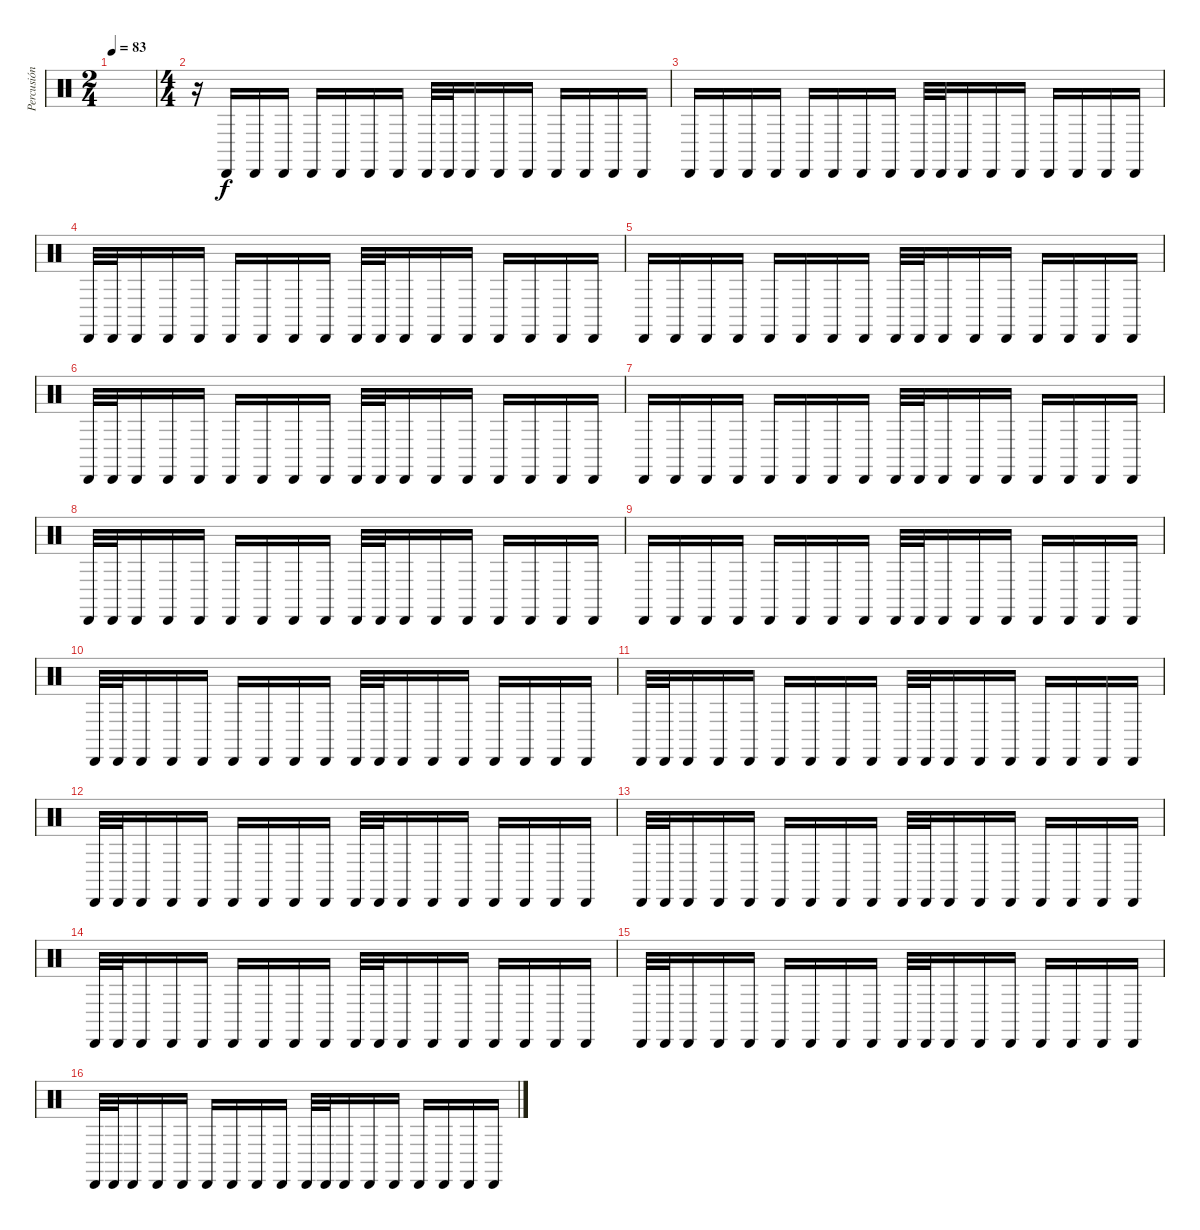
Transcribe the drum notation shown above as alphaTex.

\track ("Percusión" "Percusión") {instrument percussion}
\staff {score}
\articulation defaults
\ts (2 4)
\tempo 83
\clef neutral
\ks c
|
\ts (4 4)
r.16 "Cabasa (hit)".16 "Cabasa (hit)".16 "Cabasa (hit)".16 "Cabasa (hit)".16 "Cabasa (hit)".16 "Cabasa (hit)".16 "Cabasa (hit)".16 "Cabasa (hit)".32 "Cabasa (hit)".32 "Cabasa (hit)".16 "Cabasa (hit)".16 "Cabasa (hit)".16 "Cabasa (hit)".16 "Cabasa (hit)".16 "Cabasa (hit)".16 "Cabasa (hit)".16 |
"Cabasa (hit)".16 "Cabasa (hit)".16 "Cabasa (hit)".16 "Cabasa (hit)".16 "Cabasa (hit)".16 "Cabasa (hit)".16 "Cabasa (hit)".16 "Cabasa (hit)".16 "Cabasa (hit)".32 "Cabasa (hit)".32 "Cabasa (hit)".16 "Cabasa (hit)".16 "Cabasa (hit)".16 "Cabasa (hit)".16 "Cabasa (hit)".16 "Cabasa (hit)".16 "Cabasa (hit)".16 |
"Cabasa (hit)".32 "Cabasa (hit)".32 "Cabasa (hit)".16 "Cabasa (hit)".16 "Cabasa (hit)".16 "Cabasa (hit)".16 "Cabasa (hit)".16 "Cabasa (hit)".16 "Cabasa (hit)".16 "Cabasa (hit)".32 "Cabasa (hit)".32 "Cabasa (hit)".16 "Cabasa (hit)".16 "Cabasa (hit)".16 "Cabasa (hit)".16 "Cabasa (hit)".16 "Cabasa (hit)".16 "Cabasa (hit)".16 |
"Cabasa (hit)".16 "Cabasa (hit)".16 "Cabasa (hit)".16 "Cabasa (hit)".16 "Cabasa (hit)".16 "Cabasa (hit)".16 "Cabasa (hit)".16 "Cabasa (hit)".16 "Cabasa (hit)".32 "Cabasa (hit)".32 "Cabasa (hit)".16 "Cabasa (hit)".16 "Cabasa (hit)".16 "Cabasa (hit)".16 "Cabasa (hit)".16 "Cabasa (hit)".16 "Cabasa (hit)".16 |
"Cabasa (hit)".32 "Cabasa (hit)".32 "Cabasa (hit)".16 "Cabasa (hit)".16 "Cabasa (hit)".16 "Cabasa (hit)".16 "Cabasa (hit)".16 "Cabasa (hit)".16 "Cabasa (hit)".16 "Cabasa (hit)".32 "Cabasa (hit)".32 "Cabasa (hit)".16 "Cabasa (hit)".16 "Cabasa (hit)".16 "Cabasa (hit)".16 "Cabasa (hit)".16 "Cabasa (hit)".16 "Cabasa (hit)".16 |
"Cabasa (hit)".16 "Cabasa (hit)".16 "Cabasa (hit)".16 "Cabasa (hit)".16 "Cabasa (hit)".16 "Cabasa (hit)".16 "Cabasa (hit)".16 "Cabasa (hit)".16 "Cabasa (hit)".32 "Cabasa (hit)".32 "Cabasa (hit)".16 "Cabasa (hit)".16 "Cabasa (hit)".16 "Cabasa (hit)".16 "Cabasa (hit)".16 "Cabasa (hit)".16 "Cabasa (hit)".16 |
"Cabasa (hit)".32 "Cabasa (hit)".32 "Cabasa (hit)".16 "Cabasa (hit)".16 "Cabasa (hit)".16 "Cabasa (hit)".16 "Cabasa (hit)".16 "Cabasa (hit)".16 "Cabasa (hit)".16 "Cabasa (hit)".32 "Cabasa (hit)".32 "Cabasa (hit)".16 "Cabasa (hit)".16 "Cabasa (hit)".16 "Cabasa (hit)".16 "Cabasa (hit)".16 "Cabasa (hit)".16 "Cabasa (hit)".16 |
"Cabasa (hit)".16 "Cabasa (hit)".16 "Cabasa (hit)".16 "Cabasa (hit)".16 "Cabasa (hit)".16 "Cabasa (hit)".16 "Cabasa (hit)".16 "Cabasa (hit)".16 "Cabasa (hit)".32 "Cabasa (hit)".32 "Cabasa (hit)".16 "Cabasa (hit)".16 "Cabasa (hit)".16 "Cabasa (hit)".16 "Cabasa (hit)".16 "Cabasa (hit)".16 "Cabasa (hit)".16 |
"Cabasa (hit)".32 "Cabasa (hit)".32 "Cabasa (hit)".16 "Cabasa (hit)".16 "Cabasa (hit)".16 "Cabasa (hit)".16 "Cabasa (hit)".16 "Cabasa (hit)".16 "Cabasa (hit)".16 "Cabasa (hit)".32 "Cabasa (hit)".32 "Cabasa (hit)".16 "Cabasa (hit)".16 "Cabasa (hit)".16 "Cabasa (hit)".16 "Cabasa (hit)".16 "Cabasa (hit)".16 "Cabasa (hit)".16 |
"Cabasa (hit)".32 "Cabasa (hit)".32 "Cabasa (hit)".16 "Cabasa (hit)".16 "Cabasa (hit)".16 "Cabasa (hit)".16 "Cabasa (hit)".16 "Cabasa (hit)".16 "Cabasa (hit)".16 "Cabasa (hit)".32 "Cabasa (hit)".32 "Cabasa (hit)".16 "Cabasa (hit)".16 "Cabasa (hit)".16 "Cabasa (hit)".16 "Cabasa (hit)".16 "Cabasa (hit)".16 "Cabasa (hit)".16 |
"Cabasa (hit)".32 "Cabasa (hit)".32 "Cabasa (hit)".16 "Cabasa (hit)".16 "Cabasa (hit)".16 "Cabasa (hit)".16 "Cabasa (hit)".16 "Cabasa (hit)".16 "Cabasa (hit)".16 "Cabasa (hit)".32 "Cabasa (hit)".32 "Cabasa (hit)".16 "Cabasa (hit)".16 "Cabasa (hit)".16 "Cabasa (hit)".16 "Cabasa (hit)".16 "Cabasa (hit)".16 "Cabasa (hit)".16 |
"Cabasa (hit)".32 "Cabasa (hit)".32 "Cabasa (hit)".16 "Cabasa (hit)".16 "Cabasa (hit)".16 "Cabasa (hit)".16 "Cabasa (hit)".16 "Cabasa (hit)".16 "Cabasa (hit)".16 "Cabasa (hit)".32 "Cabasa (hit)".32 "Cabasa (hit)".16 "Cabasa (hit)".16 "Cabasa (hit)".16 "Cabasa (hit)".16 "Cabasa (hit)".16 "Cabasa (hit)".16 "Cabasa (hit)".16 |
"Cabasa (hit)".32 "Cabasa (hit)".32 "Cabasa (hit)".16 "Cabasa (hit)".16 "Cabasa (hit)".16 "Cabasa (hit)".16 "Cabasa (hit)".16 "Cabasa (hit)".16 "Cabasa (hit)".16 "Cabasa (hit)".32 "Cabasa (hit)".32 "Cabasa (hit)".16 "Cabasa (hit)".16 "Cabasa (hit)".16 "Cabasa (hit)".16 "Cabasa (hit)".16 "Cabasa (hit)".16 "Cabasa (hit)".16 |
"Cabasa (hit)".32 "Cabasa (hit)".32 "Cabasa (hit)".16 "Cabasa (hit)".16 "Cabasa (hit)".16 "Cabasa (hit)".16 "Cabasa (hit)".16 "Cabasa (hit)".16 "Cabasa (hit)".16 "Cabasa (hit)".32 "Cabasa (hit)".32 "Cabasa (hit)".16 "Cabasa (hit)".16 "Cabasa (hit)".16 "Cabasa (hit)".16 "Cabasa (hit)".16 "Cabasa (hit)".16 "Cabasa (hit)".16 |
"Cabasa (hit)".32 "Cabasa (hit)".32 "Cabasa (hit)".16 "Cabasa (hit)".16 "Cabasa (hit)".16 "Cabasa (hit)".16 "Cabasa (hit)".16 "Cabasa (hit)".16 "Cabasa (hit)".16 "Cabasa (hit)".32 "Cabasa (hit)".32 "Cabasa (hit)".16 "Cabasa (hit)".16 "Cabasa (hit)".16 "Cabasa (hit)".16 "Cabasa (hit)".16 "Cabasa (hit)".16 "Cabasa (hit)".16
